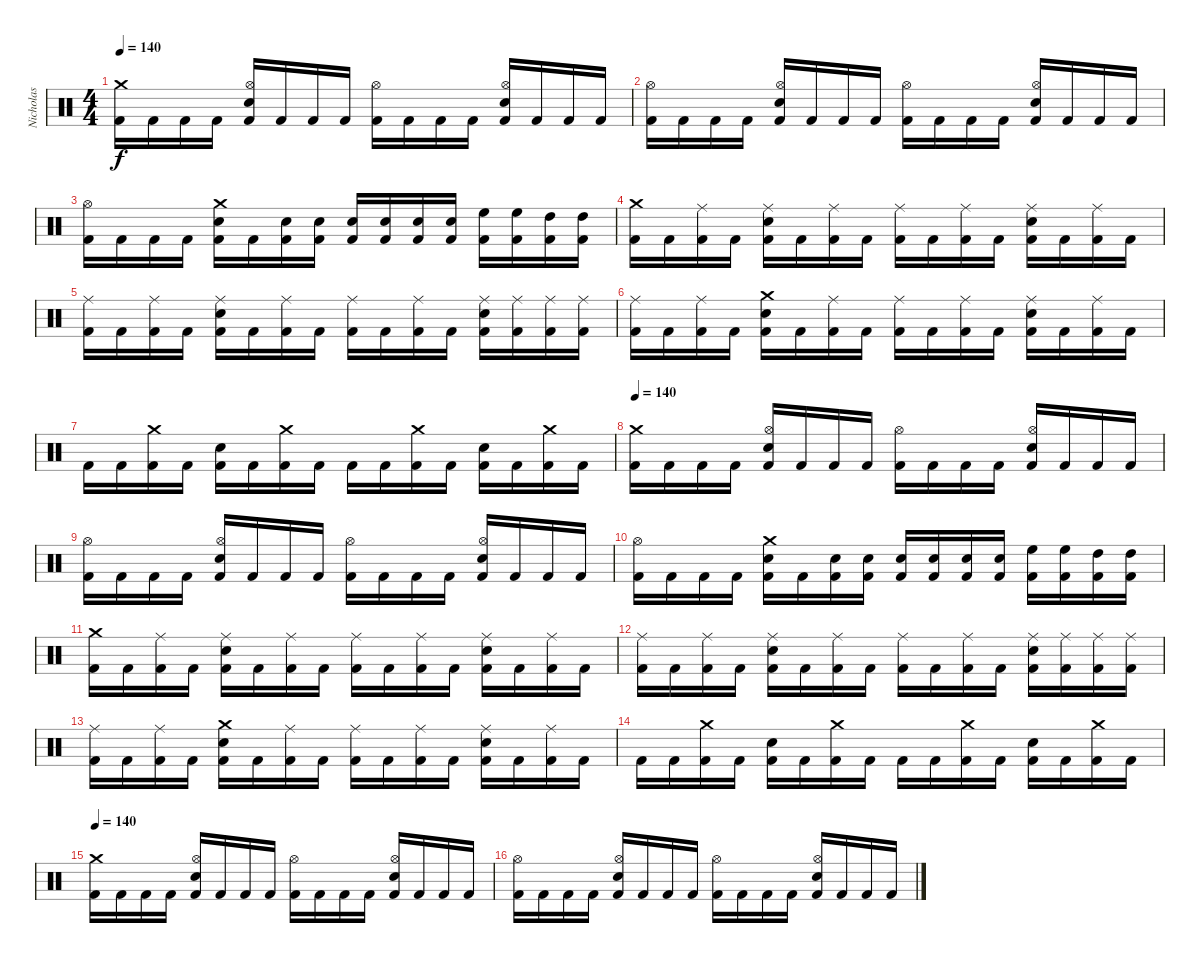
\track ("Nicholas" "Nicholas") {instrument percussion}
\staff {score}
\articulation defaults
\ts (4 4)
\tempo 140
\clef neutral
\ks c
("Crash medium (hit)" "Kick (hit) 2").16{dy f} "Kick (hit) 2".16 "Kick (hit) 2".16 "Kick (hit) 2".16 ("Hi-Hat (open)" "Snare (hit) 2" "Kick (hit) 2").16 "Kick (hit) 2".16 "Kick (hit) 2".16 "Kick (hit) 2".16 ("Hi-Hat (open)" "Kick (hit) 2").16 "Kick (hit) 2".16 "Kick (hit) 2".16 "Kick (hit) 2".16 ("Hi-Hat (open)" "Snare (hit) 2" "Kick (hit) 2").16 "Kick (hit) 2".16 "Kick (hit) 2".16 "Kick (hit) 2".16 |
("Hi-Hat (open)" "Kick (hit) 2").16 "Kick (hit) 2".16 "Kick (hit) 2".16 "Kick (hit) 2".16 ("Hi-Hat (open)" "Snare (hit) 2" "Kick (hit) 2").16 "Kick (hit) 2".16 "Kick (hit) 2".16 "Kick (hit) 2".16 ("Hi-Hat (open)" "Kick (hit) 2").16 "Kick (hit) 2".16 "Kick (hit) 2".16 "Kick (hit) 2".16 ("Hi-Hat (open)" "Snare (hit) 2" "Kick (hit) 2").16 "Kick (hit) 2".16 "Kick (hit) 2".16 "Kick (hit) 2".16 |
("Hi-Hat (open)" "Kick (hit) 2").16 "Kick (hit) 2".16 "Kick (hit) 2".16 "Kick (hit) 2".16 ("Crash medium (hit)" "Snare (hit) 2" "Kick (hit) 2").16 "Kick (hit) 2".16 ("Snare (hit) 2" "Kick (hit) 2").16 ("Snare (hit) 2" "Kick (hit) 2").16 ("Snare (hit) 2" "Kick (hit) 2").16 ("Snare (hit) 2" "Kick (hit) 2").16 ("Snare (hit) 2" "Kick (hit) 2").16 ("Snare (hit) 2" "Kick (hit) 2").16 ("High Floor Tom (hit)" "Kick (hit) 2").16 ("High Floor Tom (hit)" "Kick (hit) 2").16 ("High Tom (hit)" "Kick (hit) 2").16 ("High Tom (hit)" "Kick (hit) 2").16 |
("Crash medium (hit)" "Kick (hit) 2").16 "Kick (hit) 2".16 ("Ride (middle)" "Kick (hit) 2").16 "Kick (hit) 2".16 ("Ride (middle)" "Snare (hit) 2" "Kick (hit) 2").16 "Kick (hit) 2".16 ("Ride (middle)" "Kick (hit) 2").16 "Kick (hit) 2".16 ("Ride (middle)" "Kick (hit) 2").16 "Kick (hit) 2".16 ("Ride (middle)" "Kick (hit) 2").16 "Kick (hit) 2".16 ("Ride (middle)" "Snare (hit) 2" "Kick (hit) 2").16 "Kick (hit) 2".16 ("Ride (middle)" "Kick (hit) 2").16 "Kick (hit) 2".16 |
("Ride (middle)" "Kick (hit) 2").16 "Kick (hit) 2".16 ("Ride (middle)" "Kick (hit) 2").16 "Kick (hit) 2".16 ("Ride (middle)" "Snare (hit) 2" "Kick (hit) 2").16 "Kick (hit) 2".16 ("Ride (middle)" "Kick (hit) 2").16 "Kick (hit) 2".16 ("Ride (middle)" "Kick (hit) 2").16 "Kick (hit) 2".16 ("Ride (middle)" "Kick (hit) 2").16 "Kick (hit) 2".16 ("Ride (middle)" "Snare (hit) 2" "Kick (hit) 2").16 ("Ride (middle)" "Kick (hit) 2").16 ("Ride (middle)" "Kick (hit) 2").16 ("Ride (middle)" "Kick (hit) 2").16 |
("Ride (middle)" "Kick (hit) 2").16 "Kick (hit) 2".16 ("Ride (middle)" "Kick (hit) 2").16 "Kick (hit) 2".16 ("Crash medium (hit)" "Snare (hit) 2" "Kick (hit) 2").16 "Kick (hit) 2".16 ("Ride (middle)" "Kick (hit) 2").16 "Kick (hit) 2".16 ("Ride (middle)" "Kick (hit) 2").16 "Kick (hit) 2".16 ("Ride (middle)" "Kick (hit) 2").16 "Kick (hit) 2".16 ("Ride (middle)" "Snare (hit) 2" "Kick (hit) 2").16 "Kick (hit) 2".16 ("Ride (middle)" "Kick (hit) 2").16 "Kick (hit) 2".16 |
"Kick (hit) 2".16 "Kick (hit) 2".16 ("Crash medium (hit)" "Kick (hit) 2").16 "Kick (hit) 2".16 ("Snare (hit) 2" "Kick (hit) 2").16 "Kick (hit) 2".16 ("Crash medium (hit)" "Kick (hit) 2").16 "Kick (hit) 2".16 "Kick (hit) 2".16 "Kick (hit) 2".16 ("Crash medium (hit)" "Kick (hit) 2").16 "Kick (hit) 2".16 ("Snare (hit) 2" "Kick (hit) 2").16 "Kick (hit) 2".16 ("Crash medium (hit)" "Kick (hit) 2").16 "Kick (hit) 2".16 |
\tempo 140
("Crash medium (hit)" "Kick (hit) 2").16 "Kick (hit) 2".16 "Kick (hit) 2".16 "Kick (hit) 2".16 ("Hi-Hat (open)" "Snare (hit) 2" "Kick (hit) 2").16 "Kick (hit) 2".16 "Kick (hit) 2".16 "Kick (hit) 2".16 ("Hi-Hat (open)" "Kick (hit) 2").16 "Kick (hit) 2".16 "Kick (hit) 2".16 "Kick (hit) 2".16 ("Hi-Hat (open)" "Snare (hit) 2" "Kick (hit) 2").16 "Kick (hit) 2".16 "Kick (hit) 2".16 "Kick (hit) 2".16 |
("Hi-Hat (open)" "Kick (hit) 2").16 "Kick (hit) 2".16 "Kick (hit) 2".16 "Kick (hit) 2".16 ("Hi-Hat (open)" "Snare (hit) 2" "Kick (hit) 2").16 "Kick (hit) 2".16 "Kick (hit) 2".16 "Kick (hit) 2".16 ("Hi-Hat (open)" "Kick (hit) 2").16 "Kick (hit) 2".16 "Kick (hit) 2".16 "Kick (hit) 2".16 ("Hi-Hat (open)" "Snare (hit) 2" "Kick (hit) 2").16 "Kick (hit) 2".16 "Kick (hit) 2".16 "Kick (hit) 2".16 |
("Hi-Hat (open)" "Kick (hit) 2").16 "Kick (hit) 2".16 "Kick (hit) 2".16 "Kick (hit) 2".16 ("Crash medium (hit)" "Snare (hit) 2" "Kick (hit) 2").16 "Kick (hit) 2".16 ("Snare (hit) 2" "Kick (hit) 2").16 ("Snare (hit) 2" "Kick (hit) 2").16 ("Snare (hit) 2" "Kick (hit) 2").16 ("Snare (hit) 2" "Kick (hit) 2").16 ("Snare (hit) 2" "Kick (hit) 2").16 ("Snare (hit) 2" "Kick (hit) 2").16 ("High Floor Tom (hit)" "Kick (hit) 2").16 ("High Floor Tom (hit)" "Kick (hit) 2").16 ("High Tom (hit)" "Kick (hit) 2").16 ("High Tom (hit)" "Kick (hit) 2").16 |
("Crash medium (hit)" "Kick (hit) 2").16 "Kick (hit) 2".16 ("Ride (middle)" "Kick (hit) 2").16 "Kick (hit) 2".16 ("Ride (middle)" "Snare (hit) 2" "Kick (hit) 2").16 "Kick (hit) 2".16 ("Ride (middle)" "Kick (hit) 2").16 "Kick (hit) 2".16 ("Ride (middle)" "Kick (hit) 2").16 "Kick (hit) 2".16 ("Ride (middle)" "Kick (hit) 2").16 "Kick (hit) 2".16 ("Ride (middle)" "Snare (hit) 2" "Kick (hit) 2").16 "Kick (hit) 2".16 ("Ride (middle)" "Kick (hit) 2").16 "Kick (hit) 2".16 |
("Ride (middle)" "Kick (hit) 2").16 "Kick (hit) 2".16 ("Ride (middle)" "Kick (hit) 2").16 "Kick (hit) 2".16 ("Ride (middle)" "Snare (hit) 2" "Kick (hit) 2").16 "Kick (hit) 2".16 ("Ride (middle)" "Kick (hit) 2").16 "Kick (hit) 2".16 ("Ride (middle)" "Kick (hit) 2").16 "Kick (hit) 2".16 ("Ride (middle)" "Kick (hit) 2").16 "Kick (hit) 2".16 ("Ride (middle)" "Snare (hit) 2" "Kick (hit) 2").16 ("Ride (middle)" "Kick (hit) 2").16 ("Ride (middle)" "Kick (hit) 2").16 ("Ride (middle)" "Kick (hit) 2").16 |
("Ride (middle)" "Kick (hit) 2").16 "Kick (hit) 2".16 ("Ride (middle)" "Kick (hit) 2").16 "Kick (hit) 2".16 ("Crash medium (hit)" "Snare (hit) 2" "Kick (hit) 2").16 "Kick (hit) 2".16 ("Ride (middle)" "Kick (hit) 2").16 "Kick (hit) 2".16 ("Ride (middle)" "Kick (hit) 2").16 "Kick (hit) 2".16 ("Ride (middle)" "Kick (hit) 2").16 "Kick (hit) 2".16 ("Ride (middle)" "Snare (hit) 2" "Kick (hit) 2").16 "Kick (hit) 2".16 ("Ride (middle)" "Kick (hit) 2").16 "Kick (hit) 2".16 |
"Kick (hit) 2".16 "Kick (hit) 2".16 ("Crash medium (hit)" "Kick (hit) 2").16 "Kick (hit) 2".16 ("Snare (hit) 2" "Kick (hit) 2").16 "Kick (hit) 2".16 ("Crash medium (hit)" "Kick (hit) 2").16 "Kick (hit) 2".16 "Kick (hit) 2".16 "Kick (hit) 2".16 ("Crash medium (hit)" "Kick (hit) 2").16 "Kick (hit) 2".16 ("Snare (hit) 2" "Kick (hit) 2").16 "Kick (hit) 2".16 ("Crash medium (hit)" "Kick (hit) 2").16 "Kick (hit) 2".16 |
\tempo 140
("Crash medium (hit)" "Kick (hit) 2").16 "Kick (hit) 2".16 "Kick (hit) 2".16 "Kick (hit) 2".16 ("Hi-Hat (open)" "Snare (hit) 2" "Kick (hit) 2").16 "Kick (hit) 2".16 "Kick (hit) 2".16 "Kick (hit) 2".16 ("Hi-Hat (open)" "Kick (hit) 2").16 "Kick (hit) 2".16 "Kick (hit) 2".16 "Kick (hit) 2".16 ("Hi-Hat (open)" "Snare (hit) 2" "Kick (hit) 2").16 "Kick (hit) 2".16 "Kick (hit) 2".16 "Kick (hit) 2".16 |
("Hi-Hat (open)" "Kick (hit) 2").16 "Kick (hit) 2".16 "Kick (hit) 2".16 "Kick (hit) 2".16 ("Hi-Hat (open)" "Snare (hit) 2" "Kick (hit) 2").16 "Kick (hit) 2".16 "Kick (hit) 2".16 "Kick (hit) 2".16 ("Hi-Hat (open)" "Kick (hit) 2").16 "Kick (hit) 2".16 "Kick (hit) 2".16 "Kick (hit) 2".16 ("Hi-Hat (open)" "Snare (hit) 2" "Kick (hit) 2").16 "Kick (hit) 2".16 "Kick (hit) 2".16 "Kick (hit) 2".16
